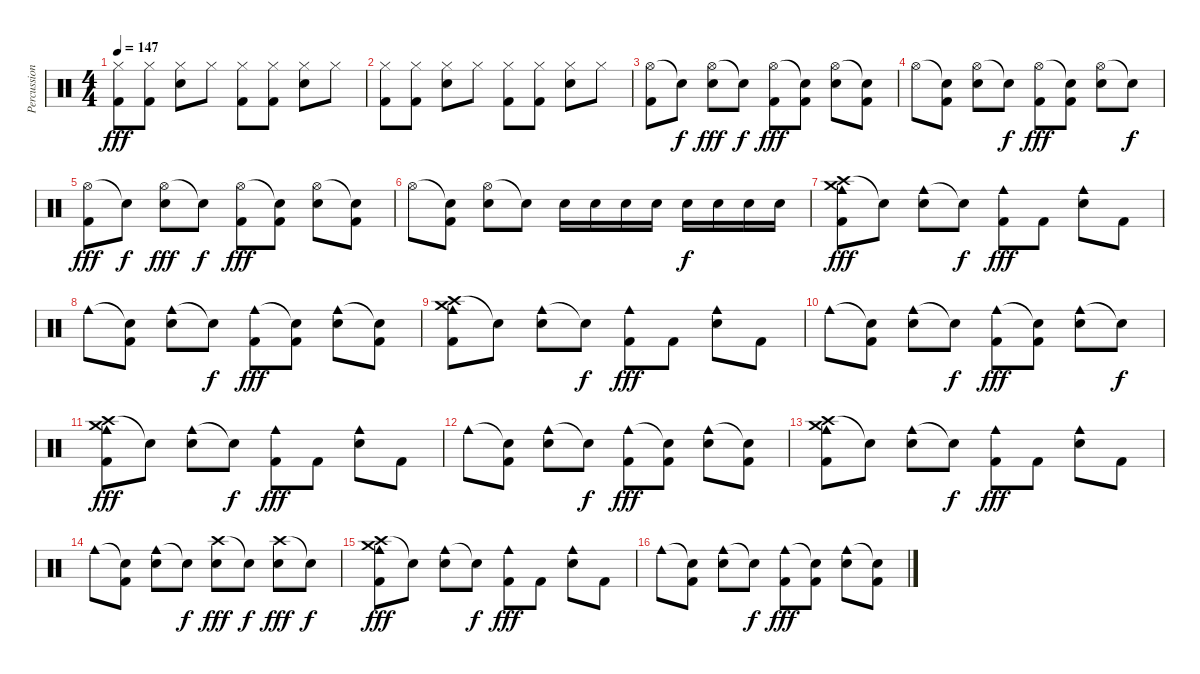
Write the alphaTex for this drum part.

\track ("Percussion" "Percussion") {instrument percussion}
\staff {score}
\articulation defaults
\ts (4 4)
\tempo 147
\clef neutral
\ks c
("Hi-Hat (closed)" "Kick (hit) 2").8{dy fff} ("Hi-Hat (closed)" "Kick (hit) 2").8 ("Hi-Hat (closed)" "Electric Snare (hit)").8 "Hi-Hat (closed)".8 ("Hi-Hat (closed)" "Kick (hit) 2").8 ("Hi-Hat (closed)" "Kick (hit) 2").8 ("Hi-Hat (closed)" "Electric Snare (hit)").8 "Hi-Hat (closed)".8 |
("Hi-Hat (closed)" "Kick (hit) 2").8 ("Hi-Hat (closed)" "Kick (hit) 2").8 ("Hi-Hat (closed)" "Electric Snare (hit)").8 "Hi-Hat (closed)".8 ("Hi-Hat (closed)" "Kick (hit) 2").8 ("Hi-Hat (closed)" "Kick (hit) 2").8 ("Hi-Hat (closed)" "Electric Snare (hit)").8 "Hi-Hat (closed)".8 |
("Hi-Hat (open)" "Kick (hit) 2").8 "Snare (hit)"{t}.8{dy f} ("Hi-Hat (open)" "Electric Snare (hit)").8{dy fff} "Snare (hit)"{t}.8{dy f} ("Hi-Hat (open)" "Kick (hit) 2").8{dy fff} ("Snare (hit)"{t} "Kick (hit) 2").8 ("Hi-Hat (open)" "Electric Snare (hit)").8 ("Snare (hit)"{t} "Kick (hit) 2").8 |
"Hi-Hat (open)".8 ("Snare (hit)"{t} "Kick (hit) 2").8 ("Hi-Hat (open)" "Electric Snare (hit)").8 "Snare (hit)"{t}.8{dy f} ("Hi-Hat (open)" "Kick (hit) 2").8{dy fff} ("Snare (hit)"{t} "Kick (hit) 2").8 ("Hi-Hat (open)" "Electric Snare (hit)").8 "Snare (hit)"{t}.8{dy f} |
("Hi-Hat (open)" "Kick (hit) 2").8{dy fff} "Snare (hit)"{t}.8{dy f} ("Hi-Hat (open)" "Electric Snare (hit)").8{dy fff} "Snare (hit)"{t}.8{dy f} ("Hi-Hat (open)" "Kick (hit) 2").8{dy fff} ("Snare (hit)"{t} "Kick (hit) 2").8 ("Hi-Hat (open)" "Electric Snare (hit)").8 ("Snare (hit)"{t} "Kick (hit) 2").8 |
"Hi-Hat (open)".8 ("Snare (hit)"{t} "Kick (hit) 2").8 ("Hi-Hat (open)" "Electric Snare (hit)").8 "Snare (hit)"{t}.8 "Electric Snare (hit)".16 "Electric Snare (hit)".16 "Electric Snare (hit)".16 "Electric Snare (hit)".16 "Electric Snare (hit)".16{dy f} "Electric Snare (hit)".16 "Electric Snare (hit)".16 "Electric Snare (hit)".16 |
("Crash high (hit)" "Crash medium (hit)" "Cowbell medium (hit)" "Kick (hit) 2").8{dy fff} "Snare (hit)"{t}.8 ("Cowbell medium (hit)" "Electric Snare (hit)").8 "Snare (hit)"{t}.8{dy f} ("Cowbell medium (hit)" "Kick (hit) 2").8{dy fff} "Kick (hit) 2".8 ("Cowbell medium (hit)" "Electric Snare (hit)").8 "Kick (hit) 2".8 |
"Cowbell medium (hit)".8 ("Snare (hit)"{t} "Kick (hit) 2").8 ("Cowbell medium (hit)" "Electric Snare (hit)").8 "Snare (hit)"{t}.8{dy f} ("Cowbell medium (hit)" "Kick (hit) 2").8{dy fff} ("Snare (hit)"{t} "Kick (hit) 2").8 ("Cowbell medium (hit)" "Electric Snare (hit)").8 ("Snare (hit)"{t} "Kick (hit) 2").8 |
("Crash high (hit)" "Crash medium (hit)" "Cowbell medium (hit)" "Kick (hit) 2").8 "Snare (hit)"{t}.8 ("Cowbell medium (hit)" "Electric Snare (hit)").8 "Snare (hit)"{t}.8{dy f} ("Cowbell medium (hit)" "Kick (hit) 2").8{dy fff} "Kick (hit) 2".8 ("Cowbell medium (hit)" "Electric Snare (hit)").8 "Kick (hit) 2".8 |
"Cowbell medium (hit)".8 ("Snare (hit)"{t} "Kick (hit) 2").8 ("Cowbell medium (hit)" "Electric Snare (hit)").8 "Snare (hit)"{t}.8{dy f} ("Cowbell medium (hit)" "Kick (hit) 2").8{dy fff} ("Snare (hit)"{t} "Kick (hit) 2").8 ("Cowbell medium (hit)" "Electric Snare (hit)").8 "Snare (hit)"{t}.8{dy f} |
("Crash high (hit)" "Crash medium (hit)" "Cowbell medium (hit)" "Kick (hit) 2").8{dy fff} "Snare (hit)"{t}.8 ("Cowbell medium (hit)" "Electric Snare (hit)").8 "Snare (hit)"{t}.8{dy f} ("Cowbell medium (hit)" "Kick (hit) 2").8{dy fff} "Kick (hit) 2".8 ("Cowbell medium (hit)" "Electric Snare (hit)").8 "Kick (hit) 2".8 |
"Cowbell medium (hit)".8 ("Snare (hit)"{t} "Kick (hit) 2").8 ("Cowbell medium (hit)" "Electric Snare (hit)").8 "Snare (hit)"{t}.8{dy f} ("Cowbell medium (hit)" "Kick (hit) 2").8{dy fff} ("Snare (hit)"{t} "Kick (hit) 2").8 ("Cowbell medium (hit)" "Electric Snare (hit)").8 ("Snare (hit)"{t} "Kick (hit) 2").8 |
("Crash high (hit)" "Crash medium (hit)" "Cowbell medium (hit)" "Kick (hit) 2").8 "Snare (hit)"{t}.8 ("Cowbell medium (hit)" "Electric Snare (hit)").8 "Snare (hit)"{t}.8{dy f} ("Cowbell medium (hit)" "Kick (hit) 2").8{dy fff} "Kick (hit) 2".8 ("Cowbell medium (hit)" "Electric Snare (hit)").8 "Kick (hit) 2".8 |
"Cowbell medium (hit)".8 ("Snare (hit)"{t} "Kick (hit) 2").8 ("Cowbell medium (hit)" "Electric Snare (hit)").8 "Snare (hit)"{t}.8{dy f} ("Crash high (hit)" "Electric Snare (hit)").8{dy fff} "Snare (hit)"{t}.8{dy f} ("Crash high (hit)" "Electric Snare (hit)").8{dy fff} "Snare (hit)"{t}.8{dy f} |
("Crash high (hit)" "Crash medium (hit)" "Cowbell medium (hit)" "Kick (hit) 2").8{dy fff} "Snare (hit)"{t}.8 ("Cowbell medium (hit)" "Electric Snare (hit)").8 "Snare (hit)"{t}.8{dy f} ("Cowbell medium (hit)" "Kick (hit) 2").8{dy fff} "Kick (hit) 2".8 ("Cowbell medium (hit)" "Electric Snare (hit)").8 "Kick (hit) 2".8 |
"Cowbell medium (hit)".8 ("Snare (hit)"{t} "Kick (hit) 2").8 ("Cowbell medium (hit)" "Electric Snare (hit)").8 "Snare (hit)"{t}.8{dy f} ("Cowbell medium (hit)" "Kick (hit) 2").8{dy fff} ("Snare (hit)"{t} "Kick (hit) 2").8 ("Cowbell medium (hit)" "Electric Snare (hit)").8 ("Snare (hit)"{t} "Kick (hit) 2").8
